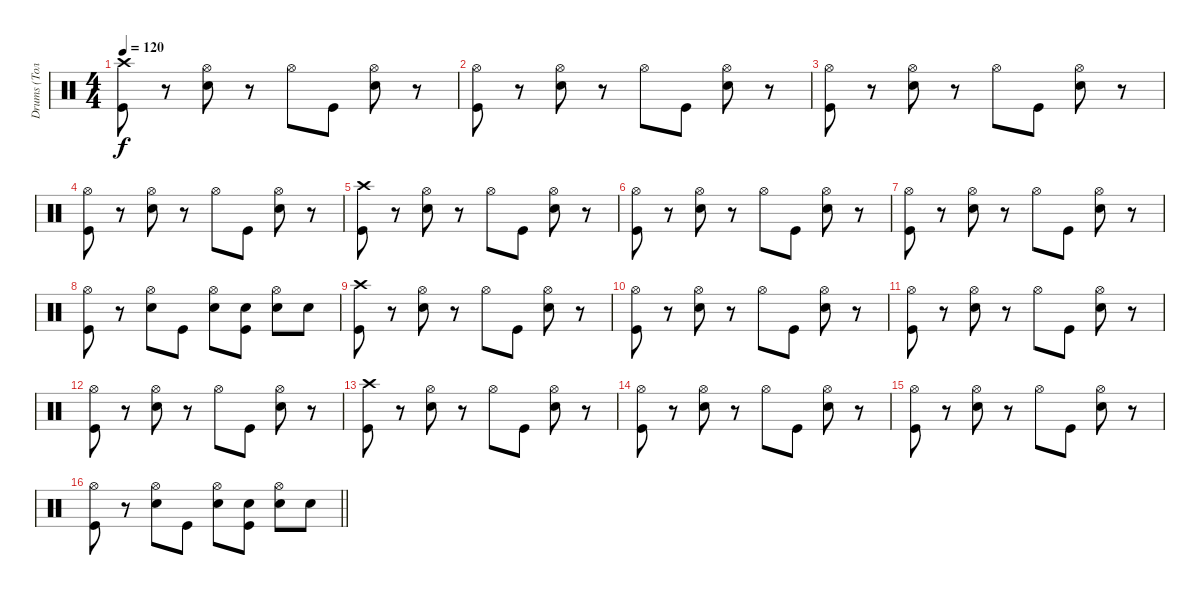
\track ("Drums (Толян)" "Drums (Тол") {instrument percussion}
\staff {score}
\articulation defaults
\ts (4 4)
\tempo 120
\clef neutral
\ks c
("Crash high (hit)" "Kick (hit)").8{dy f} r.8 ("Hi-Hat (open)" "Electric Snare (hit)").8 r.8 "Hi-Hat (open)".8 "Kick (hit)".8 ("Hi-Hat (open)" "Electric Snare (hit)").8 r.8 |
("Hi-Hat (open)" "Kick (hit)").8 r.8 ("Hi-Hat (open)" "Electric Snare (hit)").8 r.8 "Hi-Hat (open)".8 "Kick (hit)".8 ("Hi-Hat (open)" "Electric Snare (hit)").8 r.8 |
("Hi-Hat (open)" "Kick (hit)").8 r.8 ("Hi-Hat (open)" "Electric Snare (hit)").8 r.8 "Hi-Hat (open)".8 "Kick (hit)".8 ("Hi-Hat (open)" "Electric Snare (hit)").8 r.8 |
("Hi-Hat (open)" "Kick (hit)").8 r.8 ("Hi-Hat (open)" "Electric Snare (hit)").8 r.8 "Hi-Hat (open)".8 "Kick (hit)".8 ("Hi-Hat (open)" "Electric Snare (hit)").8 r.8 |
("Crash high (hit)" "Kick (hit)").8 r.8 ("Hi-Hat (open)" "Electric Snare (hit)").8 r.8 "Hi-Hat (open)".8 "Kick (hit)".8 ("Hi-Hat (open)" "Electric Snare (hit)").8 r.8 |
("Hi-Hat (open)" "Kick (hit)").8 r.8 ("Hi-Hat (open)" "Electric Snare (hit)").8 r.8 "Hi-Hat (open)".8 "Kick (hit)".8 ("Hi-Hat (open)" "Electric Snare (hit)").8 r.8 |
("Hi-Hat (open)" "Kick (hit)").8 r.8 ("Hi-Hat (open)" "Electric Snare (hit)").8 r.8 "Hi-Hat (open)".8 "Kick (hit)".8 ("Hi-Hat (open)" "Electric Snare (hit)").8 r.8 |
("Hi-Hat (open)" "Kick (hit)").8 r.8 ("Hi-Hat (open)" "Electric Snare (hit)").8 "Kick (hit)".8 ("Hi-Hat (open)" "Electric Snare (hit)").8 ("Electric Snare (hit)" "Kick (hit)").8 ("Hi-Hat (open)" "Electric Snare (hit)").8 "Electric Snare (hit)".8 |
("Crash high (hit)" "Kick (hit)").8 r.8 ("Hi-Hat (open)" "Electric Snare (hit)").8 r.8 "Hi-Hat (open)".8 "Kick (hit)".8 ("Hi-Hat (open)" "Electric Snare (hit)").8 r.8 |
("Hi-Hat (open)" "Kick (hit)").8 r.8 ("Hi-Hat (open)" "Electric Snare (hit)").8 r.8 "Hi-Hat (open)".8 "Kick (hit)".8 ("Hi-Hat (open)" "Electric Snare (hit)").8 r.8 |
("Hi-Hat (open)" "Kick (hit)").8 r.8 ("Hi-Hat (open)" "Electric Snare (hit)").8 r.8 "Hi-Hat (open)".8 "Kick (hit)".8 ("Hi-Hat (open)" "Electric Snare (hit)").8 r.8 |
("Hi-Hat (open)" "Kick (hit)").8 r.8 ("Hi-Hat (open)" "Electric Snare (hit)").8 r.8 "Hi-Hat (open)".8 "Kick (hit)".8 ("Hi-Hat (open)" "Electric Snare (hit)").8 r.8 |
("Crash high (hit)" "Kick (hit)").8 r.8 ("Hi-Hat (open)" "Electric Snare (hit)").8 r.8 "Hi-Hat (open)".8 "Kick (hit)".8 ("Hi-Hat (open)" "Electric Snare (hit)").8 r.8 |
("Hi-Hat (open)" "Kick (hit)").8 r.8 ("Hi-Hat (open)" "Electric Snare (hit)").8 r.8 "Hi-Hat (open)".8 "Kick (hit)".8 ("Hi-Hat (open)" "Electric Snare (hit)").8 r.8 |
("Hi-Hat (open)" "Kick (hit)").8 r.8 ("Hi-Hat (open)" "Electric Snare (hit)").8 r.8 "Hi-Hat (open)".8 "Kick (hit)".8 ("Hi-Hat (open)" "Electric Snare (hit)").8 r.8 |
\barLineRight lightlight
("Hi-Hat (open)" "Kick (hit)").8 r.8 ("Hi-Hat (open)" "Electric Snare (hit)").8 "Kick (hit)".8 ("Hi-Hat (open)" "Electric Snare (hit)").8 ("Electric Snare (hit)" "Kick (hit)").8 ("Hi-Hat (open)" "Electric Snare (hit)").8 "Electric Snare (hit)".8
